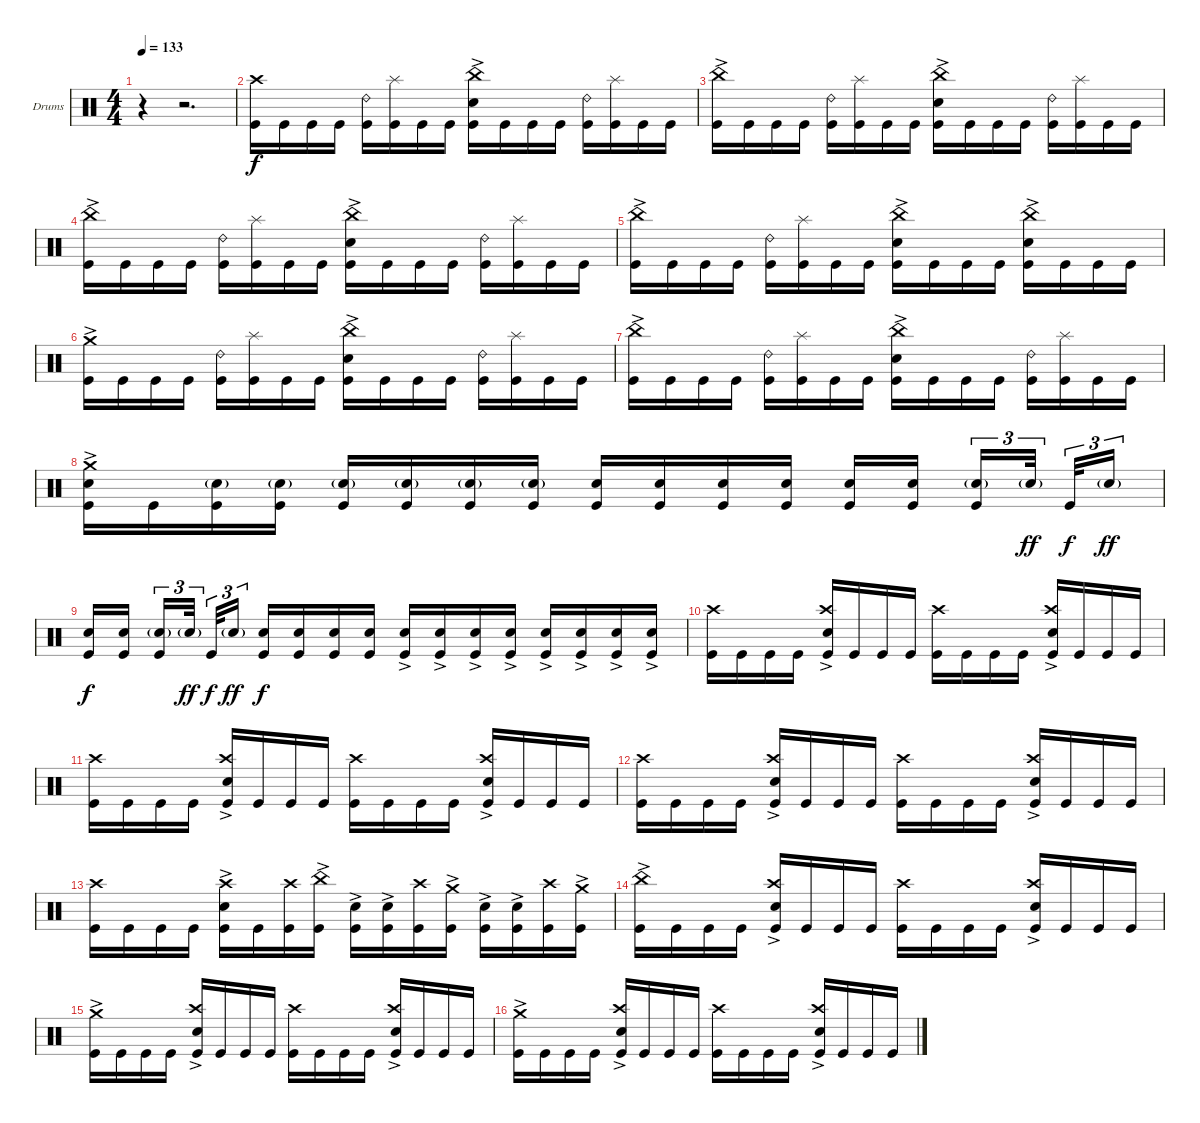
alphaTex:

\bracketExtendMode groupsimilarinstruments
\firstSystemTrackNameOrientation horizontal
\otherSystemsTrackNameOrientation horizontal
\track ("Drumkit" "Drums") {instrument percussion}
\staff {score}
\articulation defaults
\ts (4 4)
\tempo 133
\clef neutral
\ks c
r.4{dy f} r.2{d} |
("Kick (hit)" "Crash high (hit)").16 "Kick (hit)".16 "Kick (hit)".16 "Kick (hit)".16 ("Kick (hit)" "Ride (bell) 2").16 ("Kick (hit)" "Splash (hit)").16 "Kick (hit)".16 "Kick (hit)".16 ("Kick (hit)" "Snare (hit) 2"{ac} "China (hit)"{ac}).16 "Kick (hit)".16 "Kick (hit)".16 "Kick (hit)".16 ("Kick (hit)" "Ride (bell) 2").16 ("Kick (hit)" "Splash (hit)").16 "Kick (hit)".16 "Kick (hit)".16 |
("Kick (hit)" "China (hit)"{ac}).16 "Kick (hit)".16 "Kick (hit)".16 "Kick (hit)".16 ("Kick (hit)" "Ride (bell) 2").16 ("Kick (hit)" "Splash (hit)").16 "Kick (hit)".16 "Kick (hit)".16 ("Kick (hit)" "Snare (hit) 2"{ac} "China (hit)"{ac}).16 "Kick (hit)".16 "Kick (hit)".16 "Kick (hit)".16 ("Kick (hit)" "Ride (bell) 2").16 ("Kick (hit)" "Splash (hit)").16 "Kick (hit)".16 "Kick (hit)".16 |
("Kick (hit)" "China (hit)"{ac}).16 "Kick (hit)".16 "Kick (hit)".16 "Kick (hit)".16 ("Kick (hit)" "Ride (bell) 2").16 ("Kick (hit)" "Splash (hit)").16 "Kick (hit)".16 "Kick (hit)".16 ("Kick (hit)" "Snare (hit) 2"{ac} "China (hit)"{ac}).16 "Kick (hit)".16 "Kick (hit)".16 "Kick (hit)".16 ("Kick (hit)" "Ride (bell) 2").16 ("Kick (hit)" "Splash (hit)").16 "Kick (hit)".16 "Kick (hit)".16 |
("Kick (hit)" "China (hit)"{ac}).16 "Kick (hit)".16 "Kick (hit)".16 "Kick (hit)".16 ("Kick (hit)" "Ride (bell) 2").16 ("Kick (hit)" "Splash (hit)").16 "Kick (hit)".16 "Kick (hit)".16 ("Kick (hit)" "Snare (hit) 2"{ac} "China (hit)"{ac}).16 "Kick (hit)".16 "Kick (hit)".16 "Kick (hit)".16 ("Kick (hit)" "Snare (hit) 2"{ac} "China (hit)"{ac}).16 "Kick (hit)".16 "Kick (hit)".16 "Kick (hit)".16 |
("Kick (hit)" "Crash medium (hit)"{ac}).16 "Kick (hit)".16 "Kick (hit)".16 "Kick (hit)".16 ("Kick (hit)" "Ride (bell) 2").16 ("Kick (hit)" "Splash (hit)").16 "Kick (hit)".16 "Kick (hit)".16 ("Kick (hit)" "Snare (hit) 2"{ac} "China (hit)"{ac}).16 "Kick (hit)".16 "Kick (hit)".16 "Kick (hit)".16 ("Kick (hit)" "Ride (bell) 2").16 ("Kick (hit)" "Splash (hit)").16 "Kick (hit)".16 "Kick (hit)".16 |
("Kick (hit)" "China (hit)"{ac}).16 "Kick (hit)".16 "Kick (hit)".16 "Kick (hit)".16 ("Kick (hit)" "Ride (bell) 2").16 ("Kick (hit)" "Splash (hit)").16 "Kick (hit)".16 "Kick (hit)".16 ("Kick (hit)" "Snare (hit) 2"{ac} "China (hit)"{ac}).16 "Kick (hit)".16 "Kick (hit)".16 "Kick (hit)".16 ("Kick (hit)" "Ride (bell) 2").16 ("Kick (hit)" "Splash (hit)").16 "Kick (hit)".16 "Kick (hit)".16 |
("Snare (hit) 2"{ac} "Kick (hit)" "Crash medium (hit)"{ac}).16 "Kick (hit)".16 ("Snare (hit) 2"{g} "Kick (hit)").16 ("Snare (hit) 2"{g} "Kick (hit)").16 ("Snare (hit) 2"{g} "Kick (hit)").16 ("Snare (hit) 2"{g} "Kick (hit)").16 ("Snare (hit) 2"{g} "Kick (hit)").16 ("Snare (hit) 2"{g} "Kick (hit)").16 ("Snare (hit) 2" "Kick (hit)").16 ("Snare (hit) 2" "Kick (hit)").16 ("Snare (hit) 2" "Kick (hit)").16 ("Snare (hit) 2" "Kick (hit)").16 ("Snare (hit) 2" "Kick (hit)").16 ("Snare (hit) 2" "Kick (hit)").16 ("Snare (hit) 2"{g} "Kick (hit)").16{tu (3 2)} "Snare (hit) 2"{g}.32{tu (3 2) dy ff} "Kick (hit)".32{tu (3 2) dy f} "Snare (hit) 2"{g}.16{tu (3 2) dy ff} |
("Snare (hit) 2" "Kick (hit)").16{dy f} ("Snare (hit) 2" "Kick (hit)").16 ("Snare (hit) 2"{g} "Kick (hit)").16{tu (3 2)} "Snare (hit) 2"{g}.32{tu (3 2) dy ff} "Kick (hit)".32{tu (3 2) dy f} "Snare (hit) 2"{g}.16{tu (3 2) dy ff} ("Snare (hit) 2" "Kick (hit)").16{dy f} ("Snare (hit) 2" "Kick (hit)").16 ("Snare (hit) 2" "Kick (hit)").16 ("Snare (hit) 2" "Kick (hit)").16 ("Snare (hit) 2"{ac} "Kick (hit)").16 ("Snare (hit) 2"{ac} "Kick (hit)").16 ("Snare (hit) 2"{ac} "Kick (hit)").16 ("Snare (hit) 2"{ac} "Kick (hit)").16 ("Snare (hit) 2"{ac} "Kick (hit)").16 ("Snare (hit) 2"{ac} "Kick (hit)").16 ("Snare (hit) 2"{ac} "Kick (hit)").16 ("Snare (hit) 2"{ac} "Kick (hit)").16 |
("Kick (hit)" "Crash high (hit)").16 "Kick (hit)".16 "Kick (hit)".16 "Kick (hit)".16 ("Kick (hit)" "Crash high (hit)" "Snare (hit) 2"{ac}).16 "Kick (hit)".16 "Kick (hit)".16 "Kick (hit)".16 ("Kick (hit)" "Crash high (hit)").16 "Kick (hit)".16 "Kick (hit)".16 "Kick (hit)".16 ("Kick (hit)" "Crash high (hit)" "Snare (hit) 2"{ac}).16 "Kick (hit)".16 "Kick (hit)".16 "Kick (hit)".16 |
("Kick (hit)" "Crash high (hit)").16 "Kick (hit)".16 "Kick (hit)".16 "Kick (hit)".16 ("Kick (hit)" "Crash high (hit)" "Snare (hit) 2"{ac}).16 "Kick (hit)".16 "Kick (hit)".16 "Kick (hit)".16 ("Kick (hit)" "Crash high (hit)").16 "Kick (hit)".16 "Kick (hit)".16 "Kick (hit)".16 ("Kick (hit)" "Crash high (hit)" "Snare (hit) 2"{ac}).16 "Kick (hit)".16 "Kick (hit)".16 "Kick (hit)".16 |
("Kick (hit)" "Crash high (hit)").16 "Kick (hit)".16 "Kick (hit)".16 "Kick (hit)".16 ("Kick (hit)" "Crash high (hit)" "Snare (hit) 2"{ac}).16 "Kick (hit)".16 "Kick (hit)".16 "Kick (hit)".16 ("Kick (hit)" "Crash high (hit)").16 "Kick (hit)".16 "Kick (hit)".16 "Kick (hit)".16 ("Kick (hit)" "Crash high (hit)" "Snare (hit) 2"{ac}).16 "Kick (hit)".16 "Kick (hit)".16 "Kick (hit)".16 |
("Kick (hit)" "Crash high (hit)").16 "Kick (hit)".16 "Kick (hit)".16 "Kick (hit)".16 ("Kick (hit)" "Crash high (hit)" "Snare (hit) 2"{ac}).16 "Kick (hit)".16 ("Kick (hit)" "Crash high (hit)").16 ("Kick (hit)" "China (hit)"{ac}).16 ("Kick (hit)" "Snare (hit) 2"{ac}).16 ("Kick (hit)" "Snare (hit) 2"{ac}).16 ("Kick (hit)" "Crash high (hit)").16 ("Kick (hit)" "Crash medium (hit)"{ac}).16 ("Kick (hit)" "Snare (hit) 2"{ac}).16 ("Kick (hit)" "Snare (hit) 2"{ac}).16 ("Kick (hit)" "Crash high (hit)").16 ("Kick (hit)" "Crash medium (hit)"{ac}).16 |
("Kick (hit)" "China (hit)"{ac}).16 "Kick (hit)".16 "Kick (hit)".16 "Kick (hit)".16 ("Kick (hit)" "Crash high (hit)" "Snare (hit) 2"{ac}).16 "Kick (hit)".16 "Kick (hit)".16 "Kick (hit)".16 ("Kick (hit)" "Crash high (hit)").16 "Kick (hit)".16 "Kick (hit)".16 "Kick (hit)".16 ("Kick (hit)" "Crash high (hit)" "Snare (hit) 2"{ac}).16 "Kick (hit)".16 "Kick (hit)".16 "Kick (hit)".16 |
("Kick (hit)" "Crash medium (hit)"{ac}).16 "Kick (hit)".16 "Kick (hit)".16 "Kick (hit)".16 ("Kick (hit)" "Crash high (hit)" "Snare (hit) 2"{ac}).16 "Kick (hit)".16 "Kick (hit)".16 "Kick (hit)".16 ("Kick (hit)" "Crash high (hit)").16 "Kick (hit)".16 "Kick (hit)".16 "Kick (hit)".16 ("Kick (hit)" "Crash high (hit)" "Snare (hit) 2"{ac}).16 "Kick (hit)".16 "Kick (hit)".16 "Kick (hit)".16 |
("Kick (hit)" "Crash medium (hit)"{ac}).16 "Kick (hit)".16 "Kick (hit)".16 "Kick (hit)".16 ("Kick (hit)" "Crash high (hit)" "Snare (hit) 2"{ac}).16 "Kick (hit)".16 "Kick (hit)".16 "Kick (hit)".16 ("Kick (hit)" "Crash high (hit)").16 "Kick (hit)".16 "Kick (hit)".16 "Kick (hit)".16 ("Kick (hit)" "Crash high (hit)" "Snare (hit) 2"{ac}).16 "Kick (hit)".16 "Kick (hit)".16 "Kick (hit)".16
